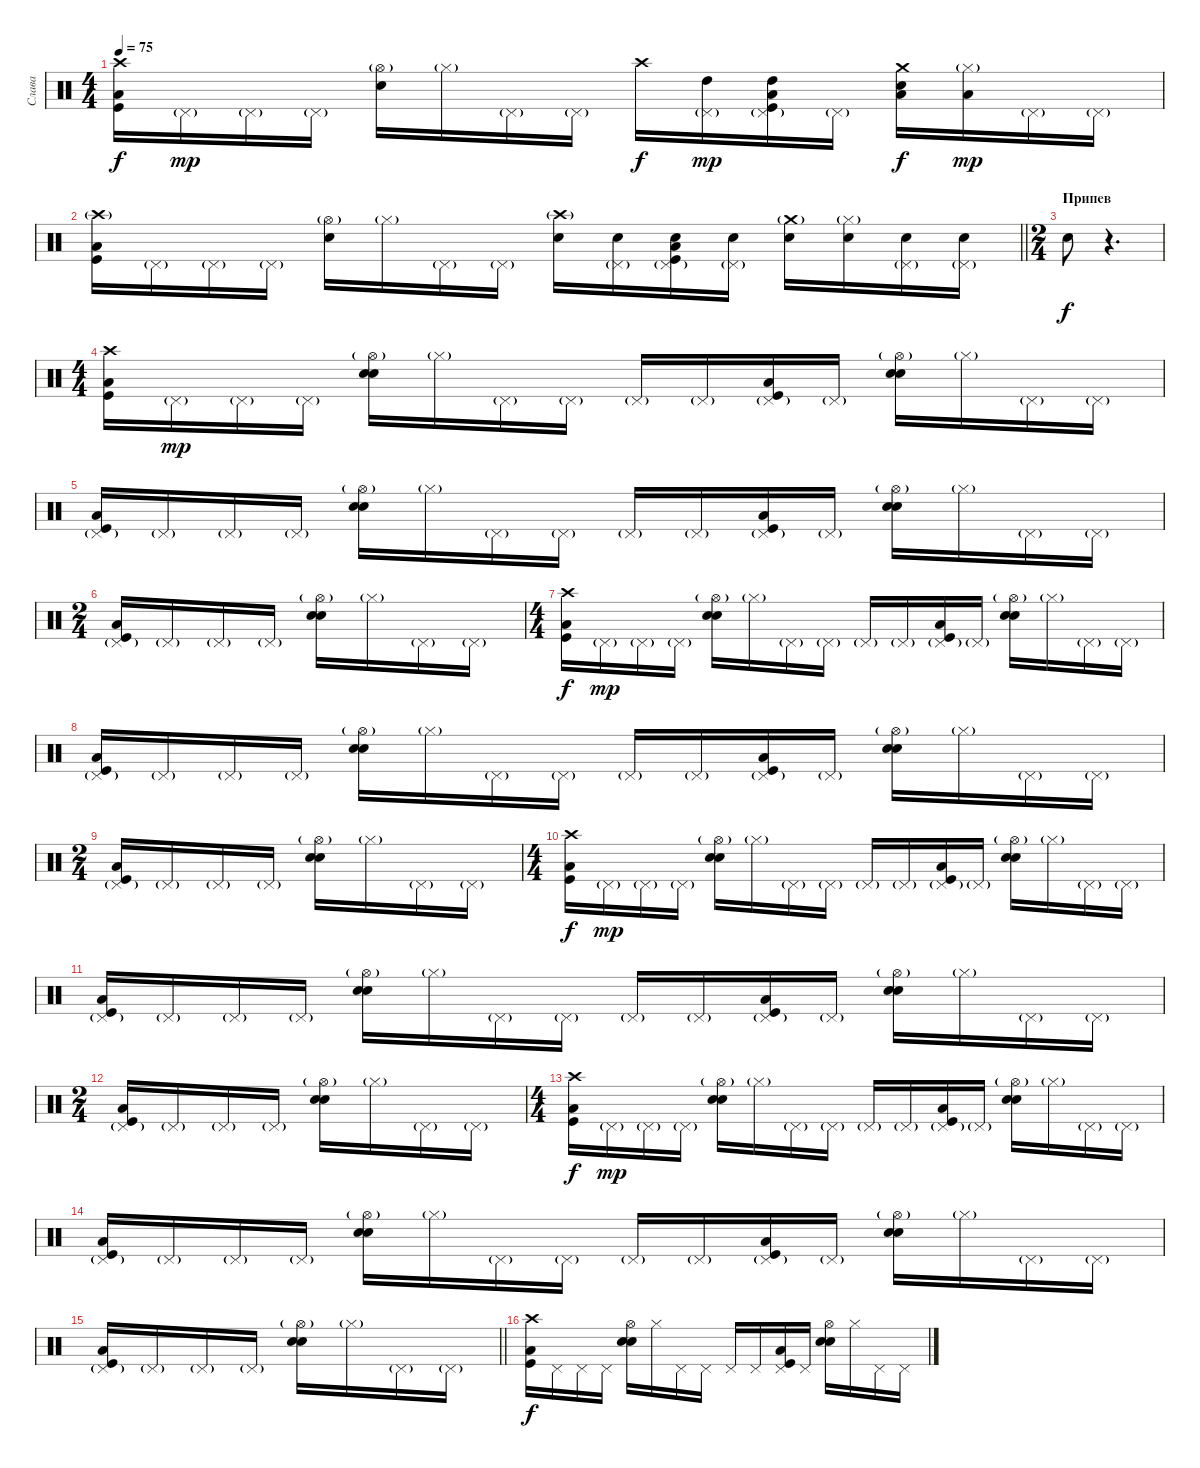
\track ("Слава" "Слава") {instrument percussion}
\staff {score}
\articulation defaults
\ts (4 4)
\tempo 75
\clef neutral
\ks c
("Crash high (hit)" "Low Tom (hit)" "Kick (hit)").16{dy f} "Pedal Hi-Hat (hit)"{g}.16{dy mp} "Pedal Hi-Hat (hit)"{g}.16 "Pedal Hi-Hat (hit)"{g}.16 ("Hi-Hat (open)"{g} "Snare (hit) 2").16 "Hi-Hat (closed)"{g}.16 "Pedal Hi-Hat (hit)"{g}.16 "Pedal Hi-Hat (hit)"{g}.16 "Crash high (hit)".16{dy f} ("Pedal Hi-Hat (hit)"{g} "High Tom (hit)").16{dy mp} ("Pedal Hi-Hat (hit)"{g} "High Tom (hit)" "Low Tom (hit)" "Kick (hit)").16 "Pedal Hi-Hat (hit)"{g}.16 ("Crash medium (hit)" "Low Tom (hit)" "Snare (hit) 2").16{dy f} ("Hi-Hat (closed)"{g} "Low Tom (hit)").16{dy mp} "Pedal Hi-Hat (hit)"{g}.16 "Pedal Hi-Hat (hit)"{g}.16 |
\barLineRight lightlight
("Crash high (hit)"{g} "Low Tom (hit)" "Kick (hit)").16 "Pedal Hi-Hat (hit)"{g}.16 "Pedal Hi-Hat (hit)"{g}.16 "Pedal Hi-Hat (hit)"{g}.16 ("Hi-Hat (open)"{g} "Snare (hit) 2").16 "Hi-Hat (closed)"{g}.16 "Pedal Hi-Hat (hit)"{g}.16 "Pedal Hi-Hat (hit)"{g}.16 ("Crash high (hit)"{g} "Snare (hit) 2").16 ("Pedal Hi-Hat (hit)"{g} "Snare (hit) 2").16 ("Pedal Hi-Hat (hit)"{g} "Snare (hit) 2" "Low Tom (hit)" "Kick (hit)").16 ("Pedal Hi-Hat (hit)"{g} "Snare (hit) 2").16 ("Crash medium (hit)"{g} "Electric Snare (hit)").16 ("Hi-Hat (closed)"{g} "Electric Snare (hit)").16 ("Pedal Hi-Hat (hit)"{g} "Electric Snare (hit)").16 ("Pedal Hi-Hat (hit)"{g} "Electric Snare (hit)").16 |
\ts (2 4)
\section ("" "Припев")
"Electric Snare (hit)".8{dy f} r.4{d} |
\ts (4 4)
("Crash high (hit)" "Low Tom (hit)" "Kick (hit)").16 "Pedal Hi-Hat (hit)"{g}.16{dy mp} "Pedal Hi-Hat (hit)"{g}.16 "Pedal Hi-Hat (hit)"{g}.16 ("Hi-Hat (open)"{g} "Electric Snare (hit)" "Snare (hit) 2").16 "Hi-Hat (closed)"{g}.16 "Pedal Hi-Hat (hit)"{g}.16 "Pedal Hi-Hat (hit)"{g}.16 "Pedal Hi-Hat (hit)"{g}.16 "Pedal Hi-Hat (hit)"{g}.16 ("Pedal Hi-Hat (hit)"{g} "Low Tom (hit)" "Kick (hit)").16 "Pedal Hi-Hat (hit)"{g}.16 ("Hi-Hat (open)"{g} "Electric Snare (hit)" "Snare (hit) 2").16 "Hi-Hat (closed)"{g}.16 "Pedal Hi-Hat (hit)"{g}.16 "Pedal Hi-Hat (hit)"{g}.16 |
("Pedal Hi-Hat (hit)"{g} "Low Tom (hit)" "Kick (hit)").16 "Pedal Hi-Hat (hit)"{g}.16 "Pedal Hi-Hat (hit)"{g}.16 "Pedal Hi-Hat (hit)"{g}.16 ("Hi-Hat (open)"{g} "Electric Snare (hit)" "Snare (hit) 2").16 "Hi-Hat (closed)"{g}.16 "Pedal Hi-Hat (hit)"{g}.16 "Pedal Hi-Hat (hit)"{g}.16 "Pedal Hi-Hat (hit)"{g}.16 "Pedal Hi-Hat (hit)"{g}.16 ("Pedal Hi-Hat (hit)"{g} "Low Tom (hit)" "Kick (hit)").16 "Pedal Hi-Hat (hit)"{g}.16 ("Hi-Hat (open)"{g} "Electric Snare (hit)" "Snare (hit) 2").16 "Hi-Hat (closed)"{g}.16 "Pedal Hi-Hat (hit)"{g}.16 "Pedal Hi-Hat (hit)"{g}.16 |
\ts (2 4)
("Pedal Hi-Hat (hit)"{g} "Low Tom (hit)" "Kick (hit)").16 "Pedal Hi-Hat (hit)"{g}.16 "Pedal Hi-Hat (hit)"{g}.16 "Pedal Hi-Hat (hit)"{g}.16 ("Hi-Hat (open)"{g} "Electric Snare (hit)" "Snare (hit) 2").16 "Hi-Hat (closed)"{g}.16 "Pedal Hi-Hat (hit)"{g}.16 "Pedal Hi-Hat (hit)"{g}.16 |
\ts (4 4)
("Crash high (hit)" "Low Tom (hit)" "Kick (hit)").16{dy f} "Pedal Hi-Hat (hit)"{g}.16{dy mp} "Pedal Hi-Hat (hit)"{g}.16 "Pedal Hi-Hat (hit)"{g}.16 ("Hi-Hat (open)"{g} "Electric Snare (hit)" "Snare (hit) 2").16 "Hi-Hat (closed)"{g}.16 "Pedal Hi-Hat (hit)"{g}.16 "Pedal Hi-Hat (hit)"{g}.16 "Pedal Hi-Hat (hit)"{g}.16 "Pedal Hi-Hat (hit)"{g}.16 ("Pedal Hi-Hat (hit)"{g} "Low Tom (hit)" "Kick (hit)").16 "Pedal Hi-Hat (hit)"{g}.16 ("Hi-Hat (open)"{g} "Electric Snare (hit)" "Snare (hit) 2").16 "Hi-Hat (closed)"{g}.16 "Pedal Hi-Hat (hit)"{g}.16 "Pedal Hi-Hat (hit)"{g}.16 |
("Pedal Hi-Hat (hit)"{g} "Low Tom (hit)" "Kick (hit)").16 "Pedal Hi-Hat (hit)"{g}.16 "Pedal Hi-Hat (hit)"{g}.16 "Pedal Hi-Hat (hit)"{g}.16 ("Hi-Hat (open)"{g} "Electric Snare (hit)" "Snare (hit) 2").16 "Hi-Hat (closed)"{g}.16 "Pedal Hi-Hat (hit)"{g}.16 "Pedal Hi-Hat (hit)"{g}.16 "Pedal Hi-Hat (hit)"{g}.16 "Pedal Hi-Hat (hit)"{g}.16 ("Pedal Hi-Hat (hit)"{g} "Low Tom (hit)" "Kick (hit)").16 "Pedal Hi-Hat (hit)"{g}.16 ("Hi-Hat (open)"{g} "Electric Snare (hit)" "Snare (hit) 2").16 "Hi-Hat (closed)"{g}.16 "Pedal Hi-Hat (hit)"{g}.16 "Pedal Hi-Hat (hit)"{g}.16 |
\ts (2 4)
("Pedal Hi-Hat (hit)"{g} "Low Tom (hit)" "Kick (hit)").16 "Pedal Hi-Hat (hit)"{g}.16 "Pedal Hi-Hat (hit)"{g}.16 "Pedal Hi-Hat (hit)"{g}.16 ("Hi-Hat (open)"{g} "Electric Snare (hit)" "Snare (hit) 2").16 "Hi-Hat (closed)"{g}.16 "Pedal Hi-Hat (hit)"{g}.16 "Pedal Hi-Hat (hit)"{g}.16 |
\ts (4 4)
("Crash high (hit)" "Low Tom (hit)" "Kick (hit)").16{dy f} "Pedal Hi-Hat (hit)"{g}.16{dy mp} "Pedal Hi-Hat (hit)"{g}.16 "Pedal Hi-Hat (hit)"{g}.16 ("Hi-Hat (open)"{g} "Electric Snare (hit)" "Snare (hit) 2").16 "Hi-Hat (closed)"{g}.16 "Pedal Hi-Hat (hit)"{g}.16 "Pedal Hi-Hat (hit)"{g}.16 "Pedal Hi-Hat (hit)"{g}.16 "Pedal Hi-Hat (hit)"{g}.16 ("Pedal Hi-Hat (hit)"{g} "Low Tom (hit)" "Kick (hit)").16 "Pedal Hi-Hat (hit)"{g}.16 ("Hi-Hat (open)"{g} "Electric Snare (hit)" "Snare (hit) 2").16 "Hi-Hat (closed)"{g}.16 "Pedal Hi-Hat (hit)"{g}.16 "Pedal Hi-Hat (hit)"{g}.16 |
("Pedal Hi-Hat (hit)"{g} "Low Tom (hit)" "Kick (hit)").16 "Pedal Hi-Hat (hit)"{g}.16 "Pedal Hi-Hat (hit)"{g}.16 "Pedal Hi-Hat (hit)"{g}.16 ("Hi-Hat (open)"{g} "Electric Snare (hit)" "Snare (hit) 2").16 "Hi-Hat (closed)"{g}.16 "Pedal Hi-Hat (hit)"{g}.16 "Pedal Hi-Hat (hit)"{g}.16 "Pedal Hi-Hat (hit)"{g}.16 "Pedal Hi-Hat (hit)"{g}.16 ("Pedal Hi-Hat (hit)"{g} "Low Tom (hit)" "Kick (hit)").16 "Pedal Hi-Hat (hit)"{g}.16 ("Hi-Hat (open)"{g} "Electric Snare (hit)" "Snare (hit) 2").16 "Hi-Hat (closed)"{g}.16 "Pedal Hi-Hat (hit)"{g}.16 "Pedal Hi-Hat (hit)"{g}.16 |
\ts (2 4)
("Pedal Hi-Hat (hit)"{g} "Low Tom (hit)" "Kick (hit)").16 "Pedal Hi-Hat (hit)"{g}.16 "Pedal Hi-Hat (hit)"{g}.16 "Pedal Hi-Hat (hit)"{g}.16 ("Hi-Hat (open)"{g} "Electric Snare (hit)" "Snare (hit) 2").16 "Hi-Hat (closed)"{g}.16 "Pedal Hi-Hat (hit)"{g}.16 "Pedal Hi-Hat (hit)"{g}.16 |
\ts (4 4)
("Crash high (hit)" "Low Tom (hit)" "Kick (hit)").16{dy f} "Pedal Hi-Hat (hit)"{g}.16{dy mp} "Pedal Hi-Hat (hit)"{g}.16 "Pedal Hi-Hat (hit)"{g}.16 ("Hi-Hat (open)"{g} "Electric Snare (hit)" "Snare (hit) 2").16 "Hi-Hat (closed)"{g}.16 "Pedal Hi-Hat (hit)"{g}.16 "Pedal Hi-Hat (hit)"{g}.16 "Pedal Hi-Hat (hit)"{g}.16 "Pedal Hi-Hat (hit)"{g}.16 ("Pedal Hi-Hat (hit)"{g} "Low Tom (hit)" "Kick (hit)").16 "Pedal Hi-Hat (hit)"{g}.16 ("Hi-Hat (open)"{g} "Electric Snare (hit)" "Snare (hit) 2").16 "Hi-Hat (closed)"{g}.16 "Pedal Hi-Hat (hit)"{g}.16 "Pedal Hi-Hat (hit)"{g}.16 |
("Pedal Hi-Hat (hit)"{g} "Low Tom (hit)" "Kick (hit)").16 "Pedal Hi-Hat (hit)"{g}.16 "Pedal Hi-Hat (hit)"{g}.16 "Pedal Hi-Hat (hit)"{g}.16 ("Hi-Hat (open)"{g} "Electric Snare (hit)" "Snare (hit) 2").16 "Hi-Hat (closed)"{g}.16 "Pedal Hi-Hat (hit)"{g}.16 "Pedal Hi-Hat (hit)"{g}.16 "Pedal Hi-Hat (hit)"{g}.16 "Pedal Hi-Hat (hit)"{g}.16 ("Pedal Hi-Hat (hit)"{g} "Low Tom (hit)" "Kick (hit)").16 "Pedal Hi-Hat (hit)"{g}.16 ("Hi-Hat (open)"{g} "Electric Snare (hit)" "Snare (hit) 2").16 "Hi-Hat (closed)"{g}.16 "Pedal Hi-Hat (hit)"{g}.16 "Pedal Hi-Hat (hit)"{g}.16 |
\barLineRight lightlight
("Pedal Hi-Hat (hit)"{g} "Low Tom (hit)" "Kick (hit)").16 "Pedal Hi-Hat (hit)"{g}.16 "Pedal Hi-Hat (hit)"{g}.16 "Pedal Hi-Hat (hit)"{g}.16 ("Hi-Hat (open)"{g} "Electric Snare (hit)" "Snare (hit) 2").16 "Hi-Hat (closed)"{g}.16 "Pedal Hi-Hat (hit)"{g}.16 "Pedal Hi-Hat (hit)"{g}.16 |
("Crash high (hit)" "Low Tom (hit)" "Kick (hit)").16{dy f} "Pedal Hi-Hat (hit)".16 "Pedal Hi-Hat (hit)".16 "Pedal Hi-Hat (hit)".16 ("Hi-Hat (open)" "Electric Snare (hit)" "Snare (hit) 2").16 "Hi-Hat (closed)".16 "Pedal Hi-Hat (hit)".16 "Pedal Hi-Hat (hit)".16 "Pedal Hi-Hat (hit)".16 "Pedal Hi-Hat (hit)".16 ("Pedal Hi-Hat (hit)" "Low Tom (hit)" "Kick (hit)").16 "Pedal Hi-Hat (hit)".16 ("Hi-Hat (open)" "Electric Snare (hit)" "Snare (hit) 2").16 "Hi-Hat (closed)".16 "Pedal Hi-Hat (hit)".16 "Pedal Hi-Hat (hit)".16
